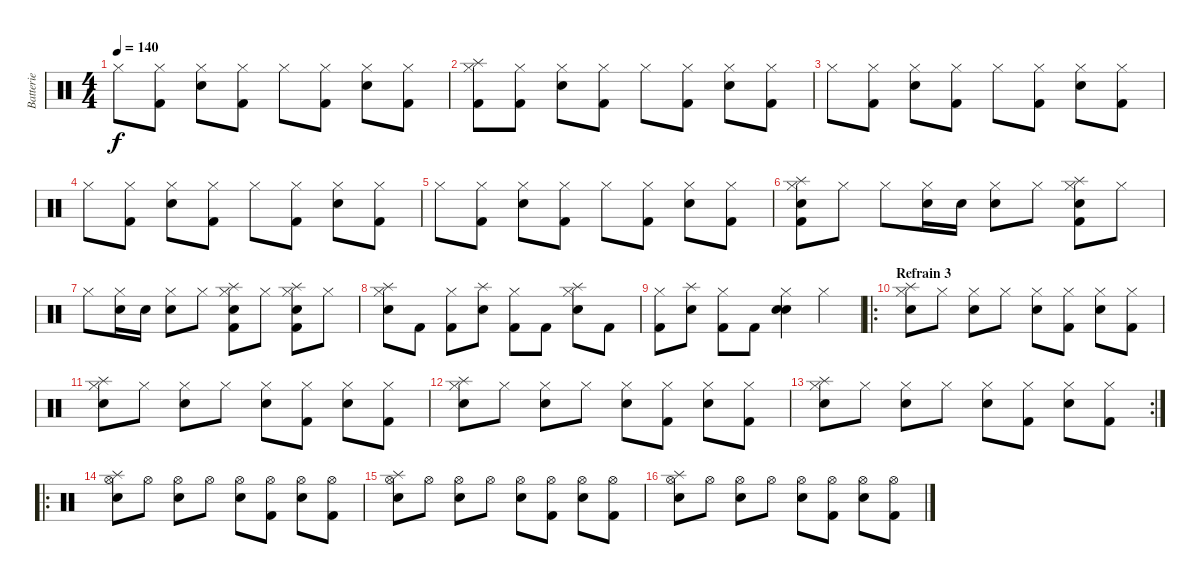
\track ("Batterie" "Batterie") {instrument percussion}
\staff {score}
\articulation defaults
\ts (4 4)
\tempo 140
\clef neutral
\ks c "Hi-Hat (closed)".8{dy f}
("Hi-Hat (closed)" "Kick (hit) 2").8 ("Hi-Hat (closed)" "Snare (hit) 2").8 ("Hi-Hat (closed)" "Kick (hit) 2").8 "Hi-Hat (closed)".8 ("Hi-Hat (closed)" "Kick (hit) 2").8 ("Hi-Hat (closed)" "Snare (hit) 2").8 ("Hi-Hat (closed)" "Kick (hit) 2").8 |
("Splash (hit)" "Hi-Hat (closed)" "Kick (hit) 2").8 ("Hi-Hat (closed)" "Kick (hit) 2").8 ("Hi-Hat (closed)" "Snare (hit) 2").8 ("Hi-Hat (closed)" "Kick (hit) 2").8 "Hi-Hat (closed)".8 ("Hi-Hat (closed)" "Kick (hit) 2").8 ("Hi-Hat (closed)" "Snare (hit) 2").8 ("Hi-Hat (closed)" "Kick (hit) 2").8 |
"Hi-Hat (closed)".8 ("Hi-Hat (closed)" "Kick (hit) 2").8 ("Hi-Hat (closed)" "Snare (hit) 2").8 ("Hi-Hat (closed)" "Kick (hit) 2").8 "Hi-Hat (closed)".8 ("Hi-Hat (closed)" "Kick (hit) 2").8 ("Hi-Hat (closed)" "Snare (hit) 2").8 ("Hi-Hat (closed)" "Kick (hit) 2").8 |
"Hi-Hat (closed)".8 ("Hi-Hat (closed)" "Kick (hit) 2").8 ("Hi-Hat (closed)" "Snare (hit) 2").8 ("Hi-Hat (closed)" "Kick (hit) 2").8 "Hi-Hat (closed)".8 ("Hi-Hat (closed)" "Kick (hit) 2").8 ("Hi-Hat (closed)" "Snare (hit) 2").8 ("Hi-Hat (closed)" "Kick (hit) 2").8 |
"Hi-Hat (closed)".8 ("Hi-Hat (closed)" "Kick (hit) 2").8 ("Hi-Hat (closed)" "Snare (hit) 2").8 ("Hi-Hat (closed)" "Kick (hit) 2").8 "Hi-Hat (closed)".8 ("Hi-Hat (closed)" "Kick (hit) 2").8 ("Hi-Hat (closed)" "Snare (hit) 2").8 ("Hi-Hat (closed)" "Kick (hit) 2").8 |
("Splash (hit)" "Hi-Hat (closed)" "Snare (hit) 2" "Kick (hit) 2").8 "Hi-Hat (closed)".8 "Hi-Hat (closed)".8 ("Hi-Hat (closed)" "Snare (hit) 2").16 "Snare (hit) 2".16 ("Hi-Hat (closed)" "Snare (hit) 2").8 "Hi-Hat (closed)".8 ("Splash (hit)" "Hi-Hat (closed)" "Snare (hit) 2" "Kick (hit) 2").8 "Hi-Hat (closed)".8 |
"Hi-Hat (closed)".8 ("Hi-Hat (closed)" "Snare (hit) 2").16 "Snare (hit) 2".16 ("Hi-Hat (closed)" "Snare (hit) 2").8 "Hi-Hat (closed)".8 ("Splash (hit)" "Hi-Hat (closed)" "Snare (hit) 2" "Kick (hit) 2").8 "Hi-Hat (closed)".8 ("Splash (hit)" "Hi-Hat (closed)" "Snare (hit) 2" "Kick (hit) 2").8 "Hi-Hat (closed)".8 |
("Splash (hit)" "Snare (hit) 2" "Hi-Hat (closed)").8 "Kick (hit) 2".8 ("Hi-Hat (closed)" "Kick (hit) 2").8 ("Splash (hit)" "Snare (hit) 2").8 ("Hi-Hat (closed)" "Kick (hit) 2").8 "Kick (hit) 2".8 ("Splash (hit)" "Snare (hit) 2" "Hi-Hat (closed)").8 "Kick (hit) 2".8 |
("Hi-Hat (closed)" "Kick (hit) 2").8 ("Splash (hit)" "Snare (hit) 2").8 ("Hi-Hat (closed)" "Kick (hit) 2").8 "Kick (hit) 2".8 ("Hi-Hat (closed)" "Snare (hit) 2" "Snare (hit) 2").4 "Hi-Hat (closed)".4 |
\ro
\section ("" "Refrain 3")
("Splash (hit)" "Hi-Hat (closed)" "Snare (hit) 2").8 "Hi-Hat (closed)".8 ("Hi-Hat (closed)" "Snare (hit) 2").8 "Hi-Hat (closed)".8 ("Hi-Hat (closed)" "Snare (hit) 2").8 ("Hi-Hat (closed)" "Kick (hit) 2").8 ("Hi-Hat (closed)" "Snare (hit) 2").8 ("Hi-Hat (closed)" "Kick (hit) 2").8 |
("Splash (hit)" "Hi-Hat (closed)" "Snare (hit) 2").8 "Hi-Hat (closed)".8 ("Hi-Hat (closed)" "Snare (hit) 2").8 "Hi-Hat (closed)".8 ("Hi-Hat (closed)" "Snare (hit) 2").8 ("Hi-Hat (closed)" "Kick (hit) 2").8 ("Hi-Hat (closed)" "Snare (hit) 2").8 ("Hi-Hat (closed)" "Kick (hit) 2").8 |
("Splash (hit)" "Hi-Hat (closed)" "Snare (hit) 2").8 "Hi-Hat (closed)".8 ("Hi-Hat (closed)" "Snare (hit) 2").8 "Hi-Hat (closed)".8 ("Hi-Hat (closed)" "Snare (hit) 2").8 ("Hi-Hat (closed)" "Kick (hit) 2").8 ("Hi-Hat (closed)" "Snare (hit) 2").8 ("Hi-Hat (closed)" "Kick (hit) 2").8 |
\rc 2
("Splash (hit)" "Hi-Hat (closed)" "Snare (hit) 2").8 "Hi-Hat (closed)".8 ("Hi-Hat (closed)" "Snare (hit) 2").8 "Hi-Hat (closed)".8 ("Hi-Hat (closed)" "Snare (hit) 2").8 ("Hi-Hat (closed)" "Kick (hit) 2").8 ("Hi-Hat (closed)" "Snare (hit) 2").8 ("Hi-Hat (closed)" "Kick (hit) 2").8 |
\ro
("Splash (hit)" "Hi-Hat (open)" "Snare (hit) 2").8 "Hi-Hat (open)".8 ("Hi-Hat (open)" "Snare (hit) 2").8 "Hi-Hat (open)".8 ("Hi-Hat (open)" "Snare (hit) 2").8 ("Hi-Hat (open)" "Kick (hit) 2").8 ("Hi-Hat (open)" "Snare (hit) 2").8 ("Hi-Hat (open)" "Kick (hit) 2").8 |
("Splash (hit)" "Hi-Hat (open)" "Snare (hit) 2").8 "Hi-Hat (open)".8 ("Hi-Hat (open)" "Snare (hit) 2").8 "Hi-Hat (open)".8 ("Hi-Hat (open)" "Snare (hit) 2").8 ("Hi-Hat (open)" "Kick (hit) 2").8 ("Hi-Hat (open)" "Snare (hit) 2").8 ("Hi-Hat (open)" "Kick (hit) 2").8 |
("Splash (hit)" "Hi-Hat (open)" "Snare (hit) 2").8 "Hi-Hat (open)".8 ("Hi-Hat (open)" "Snare (hit) 2").8 "Hi-Hat (open)".8 ("Hi-Hat (open)" "Snare (hit) 2").8 ("Hi-Hat (open)" "Kick (hit) 2").8 ("Hi-Hat (open)" "Snare (hit) 2").8 ("Hi-Hat (open)" "Kick (hit) 2").8
